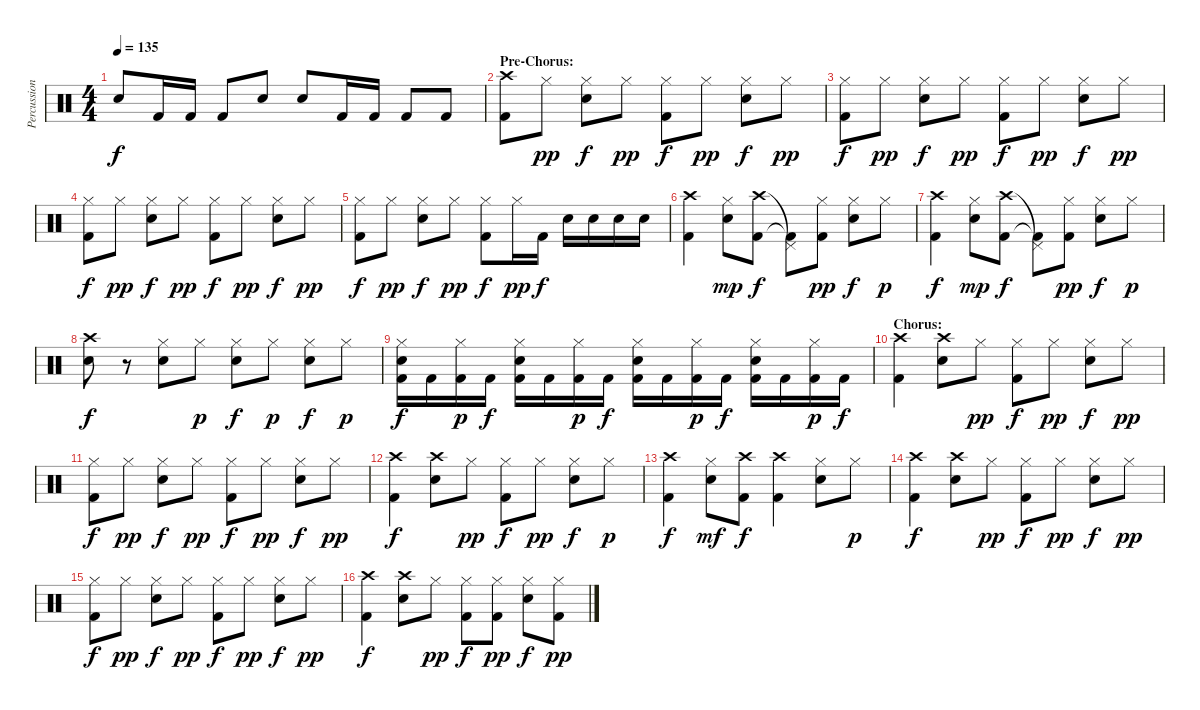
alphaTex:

\track ("Percussion" "Percussion") {instrument percussion}
\staff {score}
\articulation defaults
\ts (4 4)
\tempo 135
\clef neutral
\ks c "Snare (hit) 2".8{dy f} "Kick (hit) 2".16 "Kick (hit) 2".16 "Kick (hit) 2".8 "Snare (hit) 2".8 "Snare (hit) 2".8 "Kick (hit) 2".16 "Kick (hit) 2".16 "Kick (hit) 2".8 "Kick (hit) 2".8
|
\section ("" "Pre-Chorus:")
("Crash high (hit)" "Kick (hit) 2").8 "Hi-Hat (closed)".8{dy pp} ("Hi-Hat (closed)" "Snare (hit) 2").8{dy f} "Hi-Hat (closed)".8{dy pp} ("Hi-Hat (closed)" "Kick (hit) 2").8{dy f} "Hi-Hat (closed)".8{dy pp} ("Hi-Hat (closed)" "Snare (hit) 2").8{dy f} "Hi-Hat (closed)".8{dy pp} |
("Hi-Hat (closed)" "Kick (hit) 2").8{dy f} "Hi-Hat (closed)".8{dy pp} ("Hi-Hat (closed)" "Snare (hit) 2").8{dy f} "Hi-Hat (closed)".8{dy pp} ("Hi-Hat (closed)" "Kick (hit) 2").8{dy f} "Hi-Hat (closed)".8{dy pp} ("Hi-Hat (closed)" "Snare (hit) 2").8{dy f} "Hi-Hat (closed)".8{dy pp} |
("Hi-Hat (closed)" "Kick (hit) 2").8{dy f} "Hi-Hat (closed)".8{dy pp} ("Hi-Hat (closed)" "Snare (hit) 2").8{dy f} "Hi-Hat (closed)".8{dy pp} ("Hi-Hat (closed)" "Kick (hit) 2").8{dy f} "Hi-Hat (closed)".8{dy pp} ("Hi-Hat (closed)" "Snare (hit) 2").8{dy f} "Hi-Hat (closed)".8{dy pp} |
("Hi-Hat (closed)" "Kick (hit) 2").8{dy f} "Hi-Hat (closed)".8{dy pp} ("Hi-Hat (closed)" "Snare (hit) 2").8{dy f} "Hi-Hat (closed)".8{dy pp} ("Hi-Hat (closed)" "Kick (hit) 2").8{dy f} "Hi-Hat (closed)".16{dy pp} "Kick (hit) 2".16{dy f} "Snare (hit) 2".16 "Snare (hit) 2".16 "Snare (hit) 2".16 "Snare (hit) 2".16 |
("Crash high (hit)" "Kick (hit) 2").4 ("Hi-Hat (closed)" "Snare (hit) 2").8{dy mp} ("Crash high (hit)" "Kick (hit) 2").8{dy f} ("Pedal Hi-Hat (hit)"{t} "Kick (hit) 2"{t}).8 ("Hi-Hat (closed)" "Kick (hit) 2").8{dy pp} ("Hi-Hat (closed)" "Snare (hit) 2").8{dy f} "Hi-Hat (closed)".8{dy p} |
("Crash high (hit)" "Kick (hit) 2").4{dy f} ("Hi-Hat (closed)" "Snare (hit) 2").8{dy mp} ("Crash high (hit)" "Kick (hit) 2").8{dy f} ("Pedal Hi-Hat (hit)"{t} "Kick (hit) 2"{t}).8 ("Hi-Hat (closed)" "Kick (hit) 2").8{dy pp} ("Hi-Hat (closed)" "Snare (hit) 2").8{dy f} "Hi-Hat (closed)".8{dy p} |
("Crash high (hit)" "Snare (hit) 2").8{dy f} r.8 ("Hi-Hat (closed)" "Snare (hit) 2").8 "Hi-Hat (closed)".8{dy p} ("Hi-Hat (closed)" "Snare (hit) 2").8{dy f} "Hi-Hat (closed)".8{dy p} ("Hi-Hat (closed)" "Snare (hit) 2").8{dy f} "Hi-Hat (closed)".8{dy p} |
("Hi-Hat (closed)" "Snare (hit) 2" "Kick (hit) 2").16{dy f} "Kick (hit) 2".16 ("Hi-Hat (closed)" "Kick (hit) 2").16{dy p} "Kick (hit) 2".16{dy f} ("Hi-Hat (closed)" "Snare (hit) 2" "Kick (hit) 2").16 "Kick (hit) 2".16 ("Hi-Hat (closed)" "Kick (hit) 2").16{dy p} "Kick (hit) 2".16{dy f} ("Hi-Hat (closed)" "Snare (hit) 2" "Kick (hit) 2").16 "Kick (hit) 2".16 ("Hi-Hat (closed)" "Kick (hit) 2").16{dy p} "Kick (hit) 2".16{dy f} ("Hi-Hat (closed)" "Snare (hit) 2" "Kick (hit) 2").16 "Kick (hit) 2".16 ("Hi-Hat (closed)" "Kick (hit) 2").16{dy p} "Kick (hit) 2".16{dy f} |
\section ("" "Chorus:")
("Crash high (hit)" "Kick (hit) 2").4 ("Crash high (hit)" "Snare (hit) 2").8 "Hi-Hat (closed)".8{dy pp} ("Hi-Hat (closed)" "Kick (hit) 2").8{dy f} "Hi-Hat (closed)".8{dy pp} ("Hi-Hat (closed)" "Snare (hit) 2").8{dy f} "Hi-Hat (closed)".8{dy pp} |
("Hi-Hat (closed)" "Kick (hit) 2").8{dy f} "Hi-Hat (closed)".8{dy pp} ("Hi-Hat (closed)" "Snare (hit) 2").8{dy f} "Hi-Hat (closed)".8{dy pp} ("Hi-Hat (closed)" "Kick (hit) 2").8{dy f} "Hi-Hat (closed)".8{dy pp} ("Hi-Hat (closed)" "Snare (hit) 2").8{dy f} "Hi-Hat (closed)".8{dy pp} |
("Crash high (hit)" "Kick (hit) 2").4{dy f} ("Crash high (hit)" "Snare (hit) 2").8 "Hi-Hat (closed)".8{dy pp} ("Hi-Hat (closed)" "Kick (hit) 2").8{dy f} "Hi-Hat (closed)".8{dy pp} ("Hi-Hat (closed)" "Snare (hit) 2").8{dy f} "Hi-Hat (closed)".8{dy p} |
("Crash high (hit)" "Kick (hit) 2").4{dy f} ("Hi-Hat (closed)" "Snare (hit) 2").8{dy mf} ("Crash high (hit)" "Kick (hit) 2").8{dy f} ("Crash high (hit)" "Kick (hit) 2").4 ("Hi-Hat (closed)" "Snare (hit) 2").8 "Hi-Hat (closed)".8{dy p} |
("Crash high (hit)" "Kick (hit) 2").4{dy f} ("Crash high (hit)" "Snare (hit) 2").8 "Hi-Hat (closed)".8{dy pp} ("Hi-Hat (closed)" "Kick (hit) 2").8{dy f} "Hi-Hat (closed)".8{dy pp} ("Hi-Hat (closed)" "Snare (hit) 2").8{dy f} "Hi-Hat (closed)".8{dy pp} |
("Hi-Hat (closed)" "Kick (hit) 2").8{dy f} "Hi-Hat (closed)".8{dy pp} ("Hi-Hat (closed)" "Snare (hit) 2").8{dy f} "Hi-Hat (closed)".8{dy pp} ("Hi-Hat (closed)" "Kick (hit) 2").8{dy f} "Hi-Hat (closed)".8{dy pp} ("Hi-Hat (closed)" "Snare (hit) 2").8{dy f} "Hi-Hat (closed)".8{dy pp} |
("Crash high (hit)" "Kick (hit) 2").4{dy f} ("Crash high (hit)" "Snare (hit) 2").8 "Hi-Hat (closed)".8{dy pp} ("Hi-Hat (closed)" "Kick (hit) 2").8{dy f} ("Hi-Hat (closed)" "Kick (hit) 2").8{dy pp} ("Hi-Hat (closed)" "Snare (hit) 2").8{dy f} ("Hi-Hat (closed)" "Kick (hit) 2").8{dy pp}
